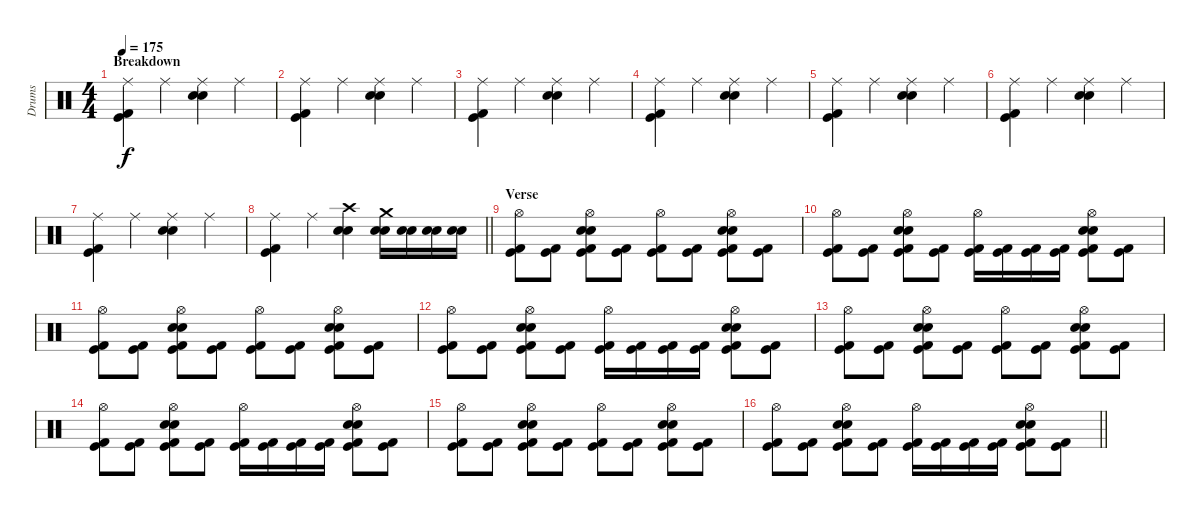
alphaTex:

\track ("Drums" "Drums") {instrument percussion}
\staff {score}
\articulation defaults
\ts (4 4)
\section ("" "Breakdown")
\tempo 175
\clef neutral
\ks c
("Ride (middle)" "Kick (hit) 2" "Kick (hit)").4{dy f} "Ride (middle)".4 ("Ride (middle)" "Electric Snare (hit)" "Electric Snare (hit)").4 "Ride (middle)".4 |
("Ride (middle)" "Kick (hit) 2" "Kick (hit)").4 "Ride (middle)".4 ("Ride (middle)" "Electric Snare (hit)" "Electric Snare (hit)").4 "Ride (middle)".4 |
("Ride (middle)" "Kick (hit) 2" "Kick (hit)").4 "Ride (middle)".4 ("Ride (middle)" "Electric Snare (hit)" "Electric Snare (hit)").4 "Ride (middle)".4 |
("Ride (middle)" "Kick (hit) 2" "Kick (hit)").4 "Ride (middle)".4 ("Ride (middle)" "Electric Snare (hit)" "Electric Snare (hit)").4 "Ride (middle)".4 |
("Ride (middle)" "Kick (hit) 2" "Kick (hit)").4 "Ride (middle)".4 ("Ride (middle)" "Electric Snare (hit)" "Electric Snare (hit)").4 "Ride (middle)".4 |
("Ride (middle)" "Kick (hit) 2" "Kick (hit)").4 "Ride (middle)".4 ("Ride (middle)" "Electric Snare (hit)" "Electric Snare (hit)").4 "Ride (middle)".4 |
("Ride (middle)" "Kick (hit) 2" "Kick (hit)").4 "Ride (middle)".4 ("Ride (middle)" "Electric Snare (hit)" "Electric Snare (hit)").4 "Ride (middle)".4 |
\barLineRight lightlight
("Ride (middle)" "Kick (hit) 2" "Kick (hit)").4 "Ride (middle)".4 ("Crash high (hit)" "Electric Snare (hit)" "Electric Snare (hit)").4 ("Crash medium (hit)" "Electric Snare (hit)" "Electric Snare (hit)").16 ("Electric Snare (hit)" "Electric Snare (hit)").16 ("Electric Snare (hit)" "Electric Snare (hit)").16 ("Electric Snare (hit)" "Electric Snare (hit)").16 |
\section ("" "Verse")
("Hi-Hat (open)" "Kick (hit) 2" "Kick (hit)").8 ("Kick (hit) 2" "Kick (hit)").8 ("Hi-Hat (open)" "Electric Snare (hit)" "Electric Snare (hit)" "Kick (hit) 2" "Kick (hit)").8 ("Kick (hit) 2" "Kick (hit)").8 ("Hi-Hat (open)" "Kick (hit) 2" "Kick (hit)").8 ("Kick (hit) 2" "Kick (hit)").8 ("Hi-Hat (open)" "Electric Snare (hit)" "Electric Snare (hit)" "Kick (hit) 2" "Kick (hit)").8 ("Kick (hit) 2" "Kick (hit)").8 |
("Hi-Hat (open)" "Kick (hit) 2" "Kick (hit)").8 ("Kick (hit) 2" "Kick (hit)").8 ("Hi-Hat (open)" "Electric Snare (hit)" "Electric Snare (hit)" "Kick (hit) 2" "Kick (hit)").8 ("Kick (hit) 2" "Kick (hit)").8 ("Hi-Hat (open)" "Kick (hit) 2" "Kick (hit)").16 ("Kick (hit) 2" "Kick (hit)").16 ("Kick (hit) 2" "Kick (hit)").16 ("Kick (hit) 2" "Kick (hit)").16 ("Hi-Hat (open)" "Electric Snare (hit)" "Electric Snare (hit)" "Kick (hit) 2" "Kick (hit)").8 ("Kick (hit) 2" "Kick (hit)").8 |
("Hi-Hat (open)" "Kick (hit) 2" "Kick (hit)").8 ("Kick (hit) 2" "Kick (hit)").8 ("Hi-Hat (open)" "Electric Snare (hit)" "Electric Snare (hit)" "Kick (hit) 2" "Kick (hit)").8 ("Kick (hit) 2" "Kick (hit)").8 ("Hi-Hat (open)" "Kick (hit) 2" "Kick (hit)").8 ("Kick (hit) 2" "Kick (hit)").8 ("Hi-Hat (open)" "Electric Snare (hit)" "Electric Snare (hit)" "Kick (hit) 2" "Kick (hit)").8 ("Kick (hit) 2" "Kick (hit)").8 |
("Hi-Hat (open)" "Kick (hit) 2" "Kick (hit)").8 ("Kick (hit) 2" "Kick (hit)").8 ("Hi-Hat (open)" "Electric Snare (hit)" "Electric Snare (hit)" "Kick (hit) 2" "Kick (hit)").8 ("Kick (hit) 2" "Kick (hit)").8 ("Hi-Hat (open)" "Kick (hit) 2" "Kick (hit)").16 ("Kick (hit) 2" "Kick (hit)").16 ("Kick (hit) 2" "Kick (hit)").16 ("Kick (hit) 2" "Kick (hit)").16 ("Hi-Hat (open)" "Electric Snare (hit)" "Electric Snare (hit)" "Kick (hit) 2" "Kick (hit)").8 ("Kick (hit) 2" "Kick (hit)").8 |
("Hi-Hat (open)" "Kick (hit) 2" "Kick (hit)").8 ("Kick (hit) 2" "Kick (hit)").8 ("Hi-Hat (open)" "Electric Snare (hit)" "Electric Snare (hit)" "Kick (hit) 2" "Kick (hit)").8 ("Kick (hit) 2" "Kick (hit)").8 ("Hi-Hat (open)" "Kick (hit) 2" "Kick (hit)").8 ("Kick (hit) 2" "Kick (hit)").8 ("Hi-Hat (open)" "Electric Snare (hit)" "Electric Snare (hit)" "Kick (hit) 2" "Kick (hit)").8 ("Kick (hit) 2" "Kick (hit)").8 |
("Hi-Hat (open)" "Kick (hit) 2" "Kick (hit)").8 ("Kick (hit) 2" "Kick (hit)").8 ("Hi-Hat (open)" "Electric Snare (hit)" "Electric Snare (hit)" "Kick (hit) 2" "Kick (hit)").8 ("Kick (hit) 2" "Kick (hit)").8 ("Hi-Hat (open)" "Kick (hit) 2" "Kick (hit)").16 ("Kick (hit) 2" "Kick (hit)").16 ("Kick (hit) 2" "Kick (hit)").16 ("Kick (hit) 2" "Kick (hit)").16 ("Hi-Hat (open)" "Electric Snare (hit)" "Electric Snare (hit)" "Kick (hit) 2" "Kick (hit)").8 ("Kick (hit) 2" "Kick (hit)").8 |
("Hi-Hat (open)" "Kick (hit) 2" "Kick (hit)").8 ("Kick (hit) 2" "Kick (hit)").8 ("Hi-Hat (open)" "Electric Snare (hit)" "Electric Snare (hit)" "Kick (hit) 2" "Kick (hit)").8 ("Kick (hit) 2" "Kick (hit)").8 ("Hi-Hat (open)" "Kick (hit) 2" "Kick (hit)").8 ("Kick (hit) 2" "Kick (hit)").8 ("Hi-Hat (open)" "Electric Snare (hit)" "Electric Snare (hit)" "Kick (hit) 2" "Kick (hit)").8 ("Kick (hit) 2" "Kick (hit)").8 |
\barLineRight lightlight
("Hi-Hat (open)" "Kick (hit) 2" "Kick (hit)").8 ("Kick (hit) 2" "Kick (hit)").8 ("Hi-Hat (open)" "Electric Snare (hit)" "Electric Snare (hit)" "Kick (hit) 2" "Kick (hit)").8 ("Kick (hit) 2" "Kick (hit)").8 ("Hi-Hat (open)" "Kick (hit) 2" "Kick (hit)").16 ("Kick (hit) 2" "Kick (hit)").16 ("Kick (hit) 2" "Kick (hit)").16 ("Kick (hit) 2" "Kick (hit)").16 ("Hi-Hat (open)" "Electric Snare (hit)" "Electric Snare (hit)" "Kick (hit) 2" "Kick (hit)").8 ("Kick (hit) 2" "Kick (hit)").8
